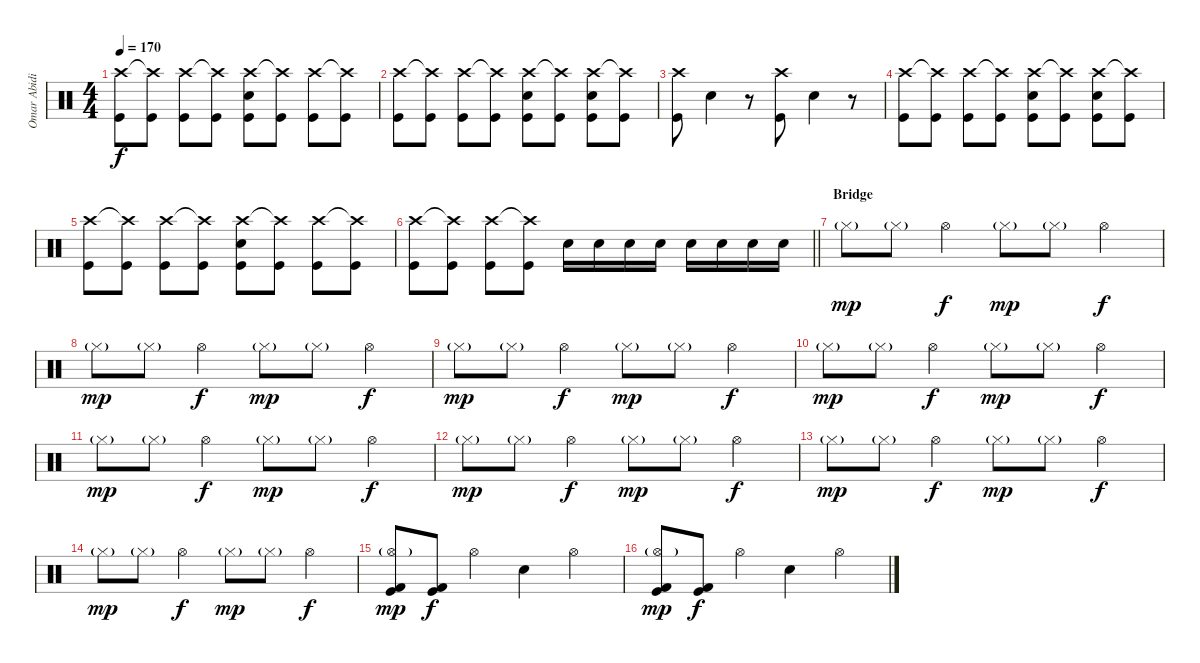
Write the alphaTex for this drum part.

\track ("Omar Abidi" "Omar Abidi") {instrument percussion}
\staff {score}
\articulation defaults
\ts (4 4)
\tempo 170
\clef neutral
\ks c
("Crash high (hit)" "Kick (hit)").8{dy f} ("Crash high (hit)"{t} "Kick (hit)").8 ("Crash high (hit)" "Kick (hit)").8 ("Crash high (hit)"{t} "Kick (hit)").8 ("Crash high (hit)" "Snare (hit) 2" "Kick (hit)").8 ("Crash high (hit)"{t} "Kick (hit)").8 ("Crash high (hit)" "Kick (hit)").8 ("Crash high (hit)"{t} "Kick (hit)").8 |
("Crash high (hit)" "Kick (hit)").8 ("Crash high (hit)"{t} "Kick (hit)").8 ("Crash high (hit)" "Kick (hit)").8 ("Crash high (hit)"{t} "Kick (hit)").8 ("Crash high (hit)" "Snare (hit) 2" "Kick (hit)").8 ("Crash high (hit)"{t} "Kick (hit)").8 ("Crash high (hit)" "Snare (hit) 2" "Kick (hit)").8 ("Crash high (hit)"{t} "Kick (hit)").8 |
("Crash high (hit)" "Kick (hit)").8 "Snare (hit) 2".4 r.8 ("Crash high (hit)" "Kick (hit)").8 "Snare (hit) 2".4 r.8 |
("Crash high (hit)" "Kick (hit)").8 ("Crash high (hit)"{t} "Kick (hit)").8 ("Crash high (hit)" "Kick (hit)").8 ("Crash high (hit)"{t} "Kick (hit)").8 ("Crash high (hit)" "Snare (hit) 2" "Kick (hit)").8 ("Crash high (hit)"{t} "Kick (hit)").8 ("Crash high (hit)" "Snare (hit) 2" "Kick (hit)").8 ("Crash high (hit)"{t} "Kick (hit)").8 |
("Crash high (hit)" "Kick (hit)").8 ("Crash high (hit)"{t} "Kick (hit)").8 ("Crash high (hit)" "Kick (hit)").8 ("Crash high (hit)"{t} "Kick (hit)").8 ("Crash high (hit)" "Snare (hit) 2" "Kick (hit)").8 ("Crash high (hit)"{t} "Kick (hit)").8 ("Crash high (hit)" "Kick (hit)").8 ("Crash high (hit)"{t} "Kick (hit)").8 |
\barLineRight lightlight
("Crash high (hit)" "Kick (hit)").8 ("Crash high (hit)"{t} "Kick (hit)").8 ("Crash high (hit)" "Kick (hit)").8 ("Crash high (hit)"{t} "Kick (hit)").8 "Snare (hit) 2".16 "Snare (hit) 2".16 "Snare (hit) 2".16 "Snare (hit) 2".16 "Snare (hit) 2".16 "Snare (hit) 2".16 "Snare (hit) 2".16 "Snare (hit) 2".16 |
\section ("" "Bridge")
"Hi-Hat (closed)"{g}.8{dy mp} "Hi-Hat (closed)"{g}.8 "Hi-Hat (open)".4{dy f} "Hi-Hat (closed)"{g}.8{dy mp} "Hi-Hat (closed)"{g}.8 "Hi-Hat (open)".4{dy f} |
"Hi-Hat (closed)"{g}.8{dy mp} "Hi-Hat (closed)"{g}.8 "Hi-Hat (open)".4{dy f} "Hi-Hat (closed)"{g}.8{dy mp} "Hi-Hat (closed)"{g}.8 "Hi-Hat (open)".4{dy f} |
"Hi-Hat (closed)"{g}.8{dy mp} "Hi-Hat (closed)"{g}.8 "Hi-Hat (open)".4{dy f} "Hi-Hat (closed)"{g}.8{dy mp} "Hi-Hat (closed)"{g}.8 "Hi-Hat (open)".4{dy f} |
"Hi-Hat (closed)"{g}.8{dy mp} "Hi-Hat (closed)"{g}.8 "Hi-Hat (open)".4{dy f} "Hi-Hat (closed)"{g}.8{dy mp} "Hi-Hat (closed)"{g}.8 "Hi-Hat (open)".4{dy f} |
"Hi-Hat (closed)"{g}.8{dy mp} "Hi-Hat (closed)"{g}.8 "Hi-Hat (open)".4{dy f} "Hi-Hat (closed)"{g}.8{dy mp} "Hi-Hat (closed)"{g}.8 "Hi-Hat (open)".4{dy f} |
"Hi-Hat (closed)"{g}.8{dy mp} "Hi-Hat (closed)"{g}.8 "Hi-Hat (open)".4{dy f} "Hi-Hat (closed)"{g}.8{dy mp} "Hi-Hat (closed)"{g}.8 "Hi-Hat (open)".4{dy f} |
"Hi-Hat (closed)"{g}.8{dy mp} "Hi-Hat (closed)"{g}.8 "Hi-Hat (open)".4{dy f} "Hi-Hat (closed)"{g}.8{dy mp} "Hi-Hat (closed)"{g}.8 "Hi-Hat (open)".4{dy f} |
"Hi-Hat (closed)"{g}.8{dy mp} "Hi-Hat (closed)"{g}.8 "Hi-Hat (open)".4{dy f} "Hi-Hat (closed)"{g}.8{dy mp} "Hi-Hat (closed)"{g}.8 "Hi-Hat (open)".4{dy f} |
("Hi-Hat (open)"{g} "Kick (hit) 2" "Kick (hit)").8{dy mp} ("Kick (hit) 2" "Kick (hit)").8{dy f} "Hi-Hat (open)".4 "Snare (hit) 2".4 "Hi-Hat (open)".4 |
("Hi-Hat (open)"{g} "Kick (hit) 2" "Kick (hit)").8{dy mp} ("Kick (hit) 2" "Kick (hit)").8{dy f} "Hi-Hat (open)".4 "Snare (hit) 2".4 "Hi-Hat (open)".4
